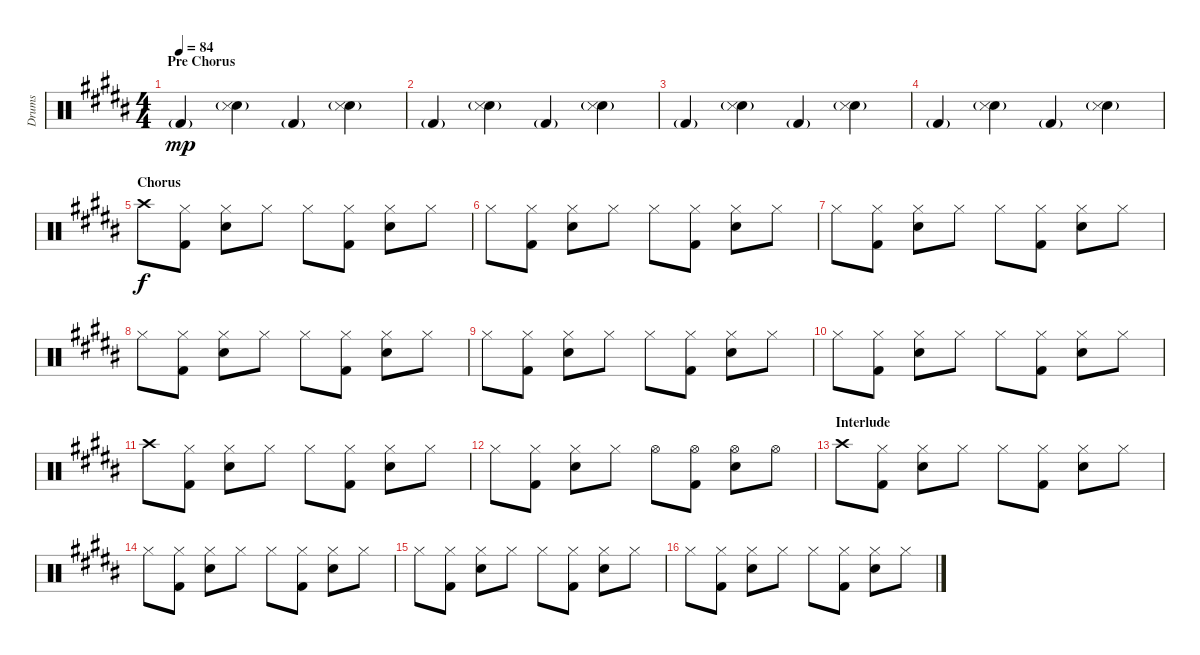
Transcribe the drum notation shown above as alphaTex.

\track ("Drums" "Drums") {instrument percussion}
\staff {score}
\articulation defaults
\ts (4 4)
\section ("" "Pre Chorus")
\tempo 84
\clef neutral
\ks b "Kick (hit) 2"{g}.4{dy mp}
("Snare (hit) 2"{g} "Snare (side stick) 3").4 "Kick (hit) 2"{g}.4 ("Snare (hit) 2"{g} "Snare (side stick) 3").4 |
"Kick (hit) 2"{g}.4 ("Snare (hit) 2"{g} "Snare (side stick) 3").4 "Kick (hit) 2"{g}.4 ("Snare (hit) 2"{g} "Snare (side stick) 3").4 |
"Kick (hit) 2"{g}.4 ("Snare (hit) 2"{g} "Snare (side stick) 3").4 "Kick (hit) 2"{g}.4 ("Snare (hit) 2"{g} "Snare (side stick) 3").4 |
"Kick (hit) 2"{g}.4 ("Snare (hit) 2"{g} "Snare (side stick) 3").4 "Kick (hit) 2"{g}.4 ("Snare (hit) 2"{g} "Snare (side stick) 3").4 |
\section ("" "Chorus")
"Crash high (hit)".8{dy f} ("Hi-Hat (closed)" "Kick (hit) 2").8 ("Hi-Hat (closed)" "Snare (hit) 2").8 "Hi-Hat (closed)".8 "Hi-Hat (closed)".8 ("Hi-Hat (closed)" "Kick (hit) 2").8 ("Hi-Hat (closed)" "Snare (hit) 2").8 "Hi-Hat (closed)".8 |
"Hi-Hat (closed)".8 ("Hi-Hat (closed)" "Kick (hit) 2").8 ("Hi-Hat (closed)" "Snare (hit) 2").8 "Hi-Hat (closed)".8 "Hi-Hat (closed)".8 ("Hi-Hat (closed)" "Kick (hit) 2").8 ("Hi-Hat (closed)" "Snare (hit) 2").8 "Hi-Hat (closed)".8 |
"Hi-Hat (closed)".8 ("Hi-Hat (closed)" "Kick (hit) 2").8 ("Hi-Hat (closed)" "Snare (hit) 2").8 "Hi-Hat (closed)".8 "Hi-Hat (closed)".8 ("Hi-Hat (closed)" "Kick (hit) 2").8 ("Hi-Hat (closed)" "Snare (hit) 2").8 "Hi-Hat (closed)".8 |
"Hi-Hat (closed)".8 ("Hi-Hat (closed)" "Kick (hit) 2").8 ("Hi-Hat (closed)" "Snare (hit) 2").8 "Hi-Hat (closed)".8 "Hi-Hat (closed)".8 ("Hi-Hat (closed)" "Kick (hit) 2").8 ("Hi-Hat (closed)" "Snare (hit) 2").8 "Hi-Hat (closed)".8 |
"Hi-Hat (closed)".8 ("Hi-Hat (closed)" "Kick (hit) 2").8 ("Hi-Hat (closed)" "Snare (hit) 2").8 "Hi-Hat (closed)".8 "Hi-Hat (closed)".8 ("Hi-Hat (closed)" "Kick (hit) 2").8 ("Hi-Hat (closed)" "Snare (hit) 2").8 "Hi-Hat (closed)".8 |
"Hi-Hat (closed)".8 ("Hi-Hat (closed)" "Kick (hit) 2").8 ("Hi-Hat (closed)" "Snare (hit) 2").8 "Hi-Hat (closed)".8 "Hi-Hat (closed)".8 ("Hi-Hat (closed)" "Kick (hit) 2").8 ("Hi-Hat (closed)" "Snare (hit) 2").8 "Hi-Hat (closed)".8 |
"Crash high (hit)".8 ("Hi-Hat (closed)" "Kick (hit) 2").8 ("Hi-Hat (closed)" "Snare (hit) 2").8 "Hi-Hat (closed)".8 "Hi-Hat (closed)".8 ("Hi-Hat (closed)" "Kick (hit) 2").8 ("Hi-Hat (closed)" "Snare (hit) 2").8 "Hi-Hat (closed)".8 |
"Hi-Hat (closed)".8 ("Hi-Hat (closed)" "Kick (hit) 2").8 ("Hi-Hat (closed)" "Snare (hit) 2").8 "Hi-Hat (closed)".8 "Hi-Hat (open)".8 ("Hi-Hat (open)" "Kick (hit) 2").8 ("Hi-Hat (open)" "Snare (hit) 2").8 "Hi-Hat (open)".8 |
\section ("" "Interlude")
"Crash high (hit)".8 ("Hi-Hat (closed)" "Kick (hit) 2").8 ("Hi-Hat (closed)" "Snare (hit) 2").8 "Hi-Hat (closed)".8 "Hi-Hat (closed)".8 ("Hi-Hat (closed)" "Kick (hit) 2").8 ("Hi-Hat (closed)" "Snare (hit) 2").8 "Hi-Hat (closed)".8 |
"Hi-Hat (closed)".8 ("Hi-Hat (closed)" "Kick (hit) 2").8 ("Hi-Hat (closed)" "Snare (hit) 2").8 "Hi-Hat (closed)".8 "Hi-Hat (closed)".8 ("Hi-Hat (closed)" "Kick (hit) 2").8 ("Hi-Hat (closed)" "Snare (hit) 2").8 "Hi-Hat (closed)".8 |
"Hi-Hat (closed)".8 ("Hi-Hat (closed)" "Kick (hit) 2").8 ("Hi-Hat (closed)" "Snare (hit) 2").8 "Hi-Hat (closed)".8 "Hi-Hat (closed)".8 ("Hi-Hat (closed)" "Kick (hit) 2").8 ("Hi-Hat (closed)" "Snare (hit) 2").8 "Hi-Hat (closed)".8 |
"Hi-Hat (closed)".8 ("Hi-Hat (closed)" "Kick (hit) 2").8 ("Hi-Hat (closed)" "Snare (hit) 2").8 "Hi-Hat (closed)".8 "Hi-Hat (closed)".8 ("Hi-Hat (closed)" "Kick (hit) 2").8 ("Hi-Hat (closed)" "Snare (hit) 2").8 "Hi-Hat (closed)".8
